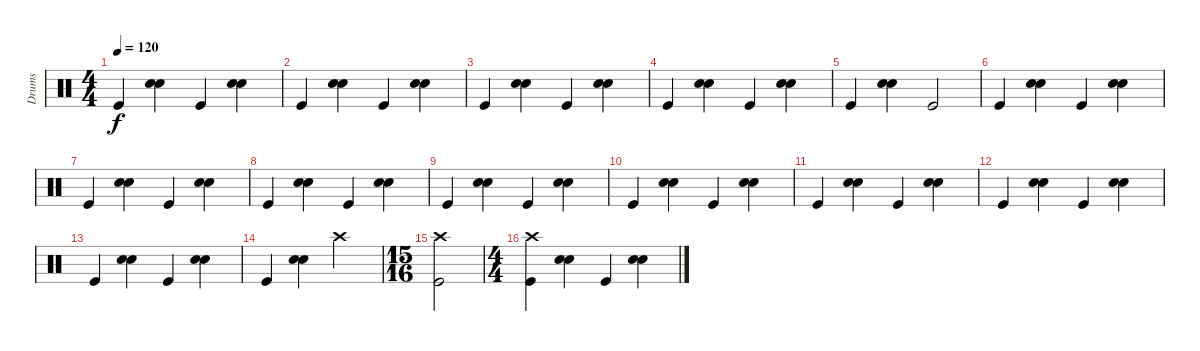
\track ("Drums" "Drums") {instrument percussion}
\staff {score}
\articulation defaults
\ts (4 4)
\tempo 120
\clef neutral
\ks c "Kick (hit)".4{dy f}
("Snare (hit) 2" "Hand Clap (hit)").4 "Kick (hit)".4 ("Snare (hit) 2" "Hand Clap (hit)").4 |
"Kick (hit)".4 ("Snare (hit) 2" "Hand Clap (hit)").4 "Kick (hit)".4 ("Snare (hit) 2" "Hand Clap (hit)").4 |
"Kick (hit)".4 ("Snare (hit) 2" "Hand Clap (hit)").4 "Kick (hit)".4 ("Snare (hit) 2" "Hand Clap (hit)").4 |
"Kick (hit)".4 ("Snare (hit) 2" "Hand Clap (hit)").4 "Kick (hit)".4 ("Snare (hit) 2" "Hand Clap (hit)").4 |
"Kick (hit)".4 ("Snare (hit) 2" "Hand Clap (hit)").4 "Kick (hit)".2 |
"Kick (hit)".4 ("Snare (hit) 2" "Hand Clap (hit)").4 "Kick (hit)".4 ("Snare (hit) 2" "Hand Clap (hit)").4 |
"Kick (hit)".4 ("Snare (hit) 2" "Hand Clap (hit)").4 "Kick (hit)".4 ("Snare (hit) 2" "Hand Clap (hit)").4 |
"Kick (hit)".4 ("Snare (hit) 2" "Hand Clap (hit)").4 "Kick (hit)".4 ("Snare (hit) 2" "Hand Clap (hit)").4 |
"Kick (hit)".4 ("Snare (hit) 2" "Hand Clap (hit)").4 "Kick (hit)".4 ("Snare (hit) 2" "Hand Clap (hit)").4 |
"Kick (hit)".4 ("Snare (hit) 2" "Hand Clap (hit)").4 "Kick (hit)".4 ("Snare (hit) 2" "Hand Clap (hit)").4 |
"Kick (hit)".4 ("Snare (hit) 2" "Hand Clap (hit)").4 "Kick (hit)".4 ("Snare (hit) 2" "Hand Clap (hit)").4 |
"Kick (hit)".4 ("Snare (hit) 2" "Hand Clap (hit)").4 "Kick (hit)".4 ("Snare (hit) 2" "Hand Clap (hit)").4 |
"Kick (hit)".4 ("Snare (hit) 2" "Hand Clap (hit)").4 "Kick (hit)".4 ("Snare (hit) 2" "Hand Clap (hit)").4 |
"Kick (hit)".4 ("Snare (hit) 2" "Hand Clap (hit)").4 "Crash high (hit)".2 |
\ts (15 16)
("Crash high (hit)" "Kick (hit)").2 |
\ts (4 4)
("Kick (hit)" "Crash high (hit)").4 ("Snare (hit) 2" "Hand Clap (hit)").4 "Kick (hit)".4 ("Snare (hit) 2" "Hand Clap (hit)").4
